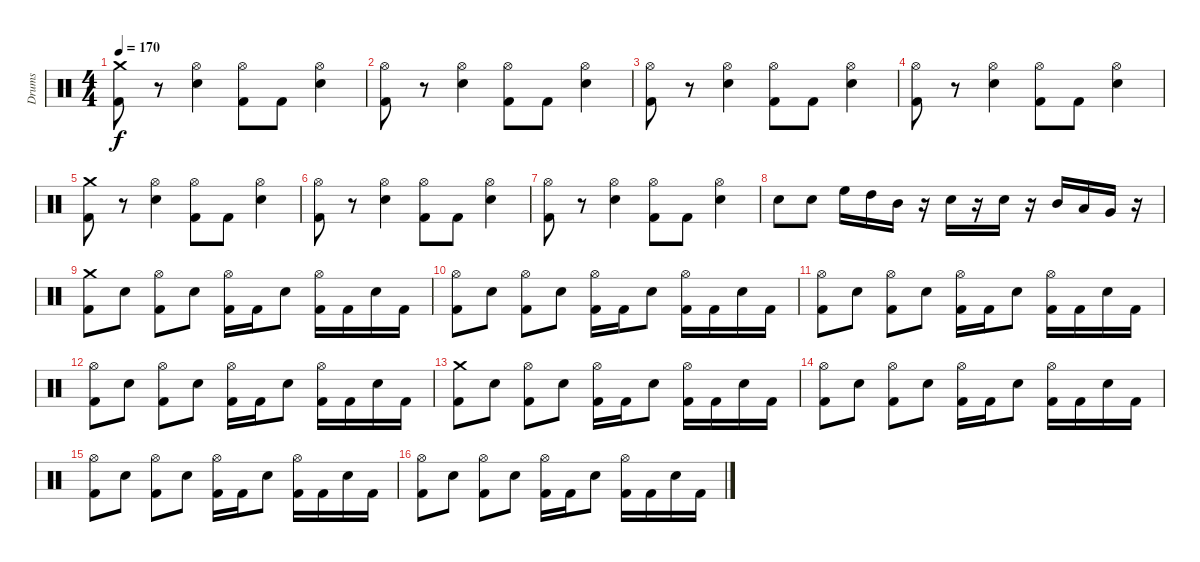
\track ("Drums" "Drums") {instrument percussion}
\staff {score}
\articulation defaults
\ts (4 4)
\tempo 170
\clef neutral
\ks c
("Kick (hit) 2" "Crash medium (hit)").8{dy f} r.8 ("Hi-Hat (open)" "Electric Snare (hit)").4 ("Hi-Hat (open)" "Kick (hit) 2").8 "Kick (hit) 2".8 ("Hi-Hat (open)" "Electric Snare (hit)").4 |
("Hi-Hat (open)" "Kick (hit) 2").8 r.8 ("Hi-Hat (open)" "Electric Snare (hit)").4 ("Hi-Hat (open)" "Kick (hit) 2").8 "Kick (hit) 2".8 ("Hi-Hat (open)" "Electric Snare (hit)").4 |
("Hi-Hat (open)" "Kick (hit) 2").8 r.8 ("Hi-Hat (open)" "Electric Snare (hit)").4 ("Hi-Hat (open)" "Kick (hit) 2").8 "Kick (hit) 2".8 ("Hi-Hat (open)" "Electric Snare (hit)").4 |
("Hi-Hat (open)" "Kick (hit) 2").8 r.8 ("Hi-Hat (open)" "Electric Snare (hit)").4 ("Hi-Hat (open)" "Kick (hit) 2").8 "Kick (hit) 2".8 ("Hi-Hat (open)" "Electric Snare (hit)").4 |
("Kick (hit) 2" "Crash medium (hit)").8 r.8 ("Hi-Hat (open)" "Electric Snare (hit)").4 ("Hi-Hat (open)" "Kick (hit) 2").8 "Kick (hit) 2".8 ("Hi-Hat (open)" "Electric Snare (hit)").4 |
("Hi-Hat (open)" "Kick (hit) 2").8 r.8 ("Hi-Hat (open)" "Electric Snare (hit)").4 ("Hi-Hat (open)" "Kick (hit) 2").8 "Kick (hit) 2".8 ("Hi-Hat (open)" "Electric Snare (hit)").4 |
("Hi-Hat (open)" "Kick (hit) 2").8 r.8 ("Hi-Hat (open)" "Electric Snare (hit)").4 ("Hi-Hat (open)" "Kick (hit) 2").8 "Kick (hit) 2".8 ("Electric Snare (hit)" "Hi-Hat (open)").4 |
"Electric Snare (hit)".8 "Electric Snare (hit)".8 "High Floor Tom (hit)".16 "High Tom (hit)".16 "Mid Tom (hit)".16 r.16 "Electric Snare (hit)".16 r.16 "Electric Snare (hit)".16 r.16 "Mid Tom (hit)".16 "Low Tom (hit)".16 "Very Low Tom (hit)".16 r.16 |
("Crash medium (hit)" "Kick (hit) 2").8 "Electric Snare (hit)".8 ("Hi-Hat (open)" "Kick (hit) 2").8 "Electric Snare (hit)".8 ("Hi-Hat (open)" "Kick (hit) 2").16 "Kick (hit) 2".16 "Electric Snare (hit)".8 ("Hi-Hat (open)" "Kick (hit) 2").16 "Kick (hit) 2".16 "Electric Snare (hit)".16 "Kick (hit) 2".16 |
("Hi-Hat (open)" "Kick (hit) 2").8 "Electric Snare (hit)".8 ("Hi-Hat (open)" "Kick (hit) 2").8 "Electric Snare (hit)".8 ("Hi-Hat (open)" "Kick (hit) 2").16 "Kick (hit) 2".16 "Electric Snare (hit)".8 ("Hi-Hat (open)" "Kick (hit) 2").16 "Kick (hit) 2".16 "Electric Snare (hit)".16 "Kick (hit) 2".16 |
("Hi-Hat (open)" "Kick (hit) 2").8 "Electric Snare (hit)".8 ("Hi-Hat (open)" "Kick (hit) 2").8 "Electric Snare (hit)".8 ("Hi-Hat (open)" "Kick (hit) 2").16 "Kick (hit) 2".16 "Electric Snare (hit)".8 ("Hi-Hat (open)" "Kick (hit) 2").16 "Kick (hit) 2".16 "Electric Snare (hit)".16 "Kick (hit) 2".16 |
("Hi-Hat (open)" "Kick (hit) 2").8 "Electric Snare (hit)".8 ("Hi-Hat (open)" "Kick (hit) 2").8 "Electric Snare (hit)".8 ("Hi-Hat (open)" "Kick (hit) 2").16 "Kick (hit) 2".16 "Electric Snare (hit)".8 ("Hi-Hat (open)" "Kick (hit) 2").16 "Kick (hit) 2".16 "Electric Snare (hit)".16 "Kick (hit) 2".16 |
("Crash medium (hit)" "Kick (hit) 2").8 "Electric Snare (hit)".8 ("Hi-Hat (open)" "Kick (hit) 2").8 "Electric Snare (hit)".8 ("Hi-Hat (open)" "Kick (hit) 2").16 "Kick (hit) 2".16 "Electric Snare (hit)".8 ("Hi-Hat (open)" "Kick (hit) 2").16 "Kick (hit) 2".16 "Electric Snare (hit)".16 "Kick (hit) 2".16 |
("Hi-Hat (open)" "Kick (hit) 2").8 "Electric Snare (hit)".8 ("Hi-Hat (open)" "Kick (hit) 2").8 "Electric Snare (hit)".8 ("Hi-Hat (open)" "Kick (hit) 2").16 "Kick (hit) 2".16 "Electric Snare (hit)".8 ("Hi-Hat (open)" "Kick (hit) 2").16 "Kick (hit) 2".16 "Electric Snare (hit)".16 "Kick (hit) 2".16 |
("Hi-Hat (open)" "Kick (hit) 2").8 "Electric Snare (hit)".8 ("Hi-Hat (open)" "Kick (hit) 2").8 "Electric Snare (hit)".8 ("Hi-Hat (open)" "Kick (hit) 2").16 "Kick (hit) 2".16 "Electric Snare (hit)".8 ("Hi-Hat (open)" "Kick (hit) 2").16 "Kick (hit) 2".16 "Electric Snare (hit)".16 "Kick (hit) 2".16 |
("Hi-Hat (open)" "Kick (hit) 2").8 "Electric Snare (hit)".8 ("Hi-Hat (open)" "Kick (hit) 2").8 "Electric Snare (hit)".8 ("Hi-Hat (open)" "Kick (hit) 2").16 "Kick (hit) 2".16 "Electric Snare (hit)".8 ("Hi-Hat (open)" "Kick (hit) 2").16 "Kick (hit) 2".16 "Electric Snare (hit)".16 "Kick (hit) 2".16
